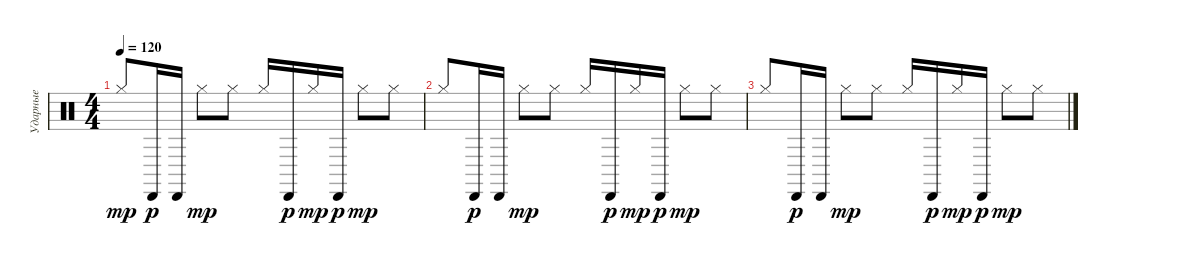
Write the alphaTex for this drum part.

\track ("Ударные" "Ударные") {instrument percussion}
\staff {score}
\articulation defaults
\ts (4 4)
\tempo 120
\clef neutral
\ks c "Hi-Hat (closed)".8{dy mp} "Cabasa (hit)".16{dy p} "Cabasa (hit)".16 "Hi-Hat (closed)".8{dy mp} "Hi-Hat (closed)".8 "Hi-Hat (closed)".16 "Cabasa (hit)".16{dy p} "Hi-Hat (closed)".16{dy mp} "Cabasa (hit)".16{dy p} "Hi-Hat (closed)".8{dy mp} "Hi-Hat (closed)".8
|
"Hi-Hat (closed)".8 "Cabasa (hit)".16{dy p} "Cabasa (hit)".16 "Hi-Hat (closed)".8{dy mp} "Hi-Hat (closed)".8 "Hi-Hat (closed)".16 "Cabasa (hit)".16{dy p} "Hi-Hat (closed)".16{dy mp} "Cabasa (hit)".16{dy p} "Hi-Hat (closed)".8{dy mp} "Hi-Hat (closed)".8 |
"Hi-Hat (closed)".8 "Cabasa (hit)".16{dy p} "Cabasa (hit)".16 "Hi-Hat (closed)".8{dy mp} "Hi-Hat (closed)".8 "Hi-Hat (closed)".16 "Cabasa (hit)".16{dy p} "Hi-Hat (closed)".16{dy mp} "Cabasa (hit)".16{dy p} "Hi-Hat (closed)".8{dy mp} "Hi-Hat (closed)".8
